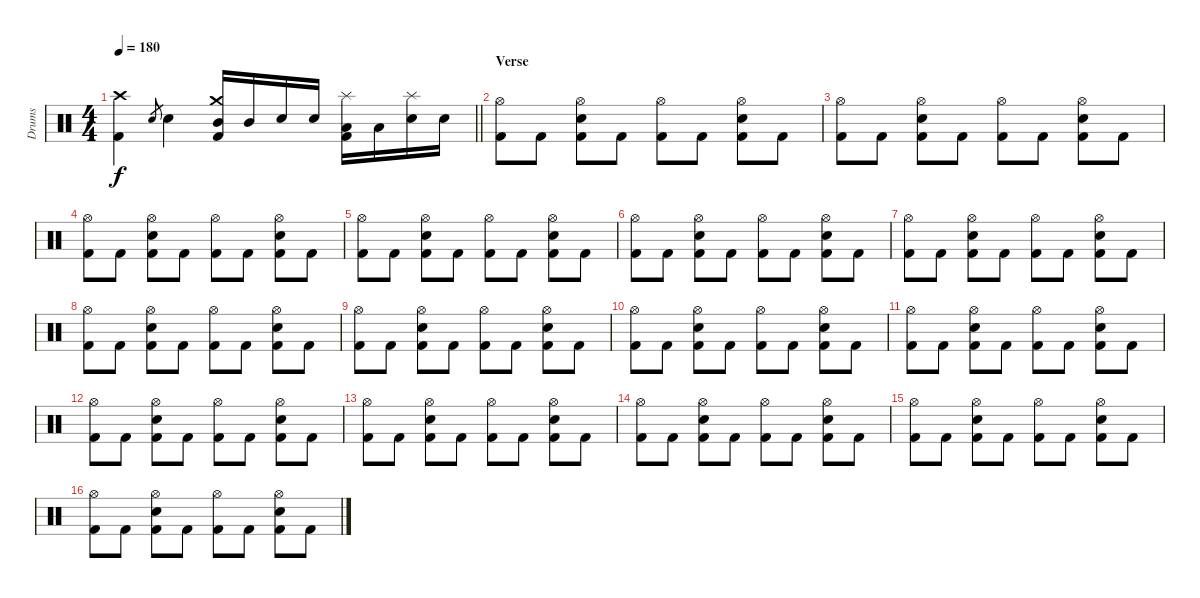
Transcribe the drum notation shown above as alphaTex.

\track ("Drums" "Drums") {instrument percussion}
\staff {score}
\articulation defaults
\ts (4 4)
\tempo 180
\clef neutral
\barLineRight lightlight
\ks c
("Crash high (hit)" "Kick (hit) 2").4{dy f} "Snare (hit) 2".8{gr} "Snare (hit) 2".4 ("Crash medium (hit)" "Mid Tom (hit)" "Kick (hit) 2").16 "Mid Tom (hit)".16 "Snare (hit) 2".16 "Snare (hit) 2".16 ("Splash (hit)" "Low Tom (hit)" "Kick (hit) 2").16 "Low Tom (hit)".16 ("Splash (hit)" "Snare (hit) 2").16 "Snare (hit) 2".16 |
\section ("" "Verse")
("Hi-Hat (open)" "Kick (hit) 2").8 "Kick (hit) 2".8 ("Hi-Hat (open)" "Snare (hit) 2" "Kick (hit) 2").8 "Kick (hit) 2".8 ("Hi-Hat (open)" "Kick (hit) 2").8 "Kick (hit) 2".8 ("Hi-Hat (open)" "Snare (hit) 2" "Kick (hit) 2").8 "Kick (hit) 2".8 |
("Hi-Hat (open)" "Kick (hit) 2").8 "Kick (hit) 2".8 ("Hi-Hat (open)" "Snare (hit) 2" "Kick (hit) 2").8 "Kick (hit) 2".8 ("Hi-Hat (open)" "Kick (hit) 2").8 "Kick (hit) 2".8 ("Hi-Hat (open)" "Snare (hit) 2" "Kick (hit) 2").8 "Kick (hit) 2".8 |
("Hi-Hat (open)" "Kick (hit) 2").8 "Kick (hit) 2".8 ("Hi-Hat (open)" "Snare (hit) 2" "Kick (hit) 2").8 "Kick (hit) 2".8 ("Hi-Hat (open)" "Kick (hit) 2").8 "Kick (hit) 2".8 ("Hi-Hat (open)" "Snare (hit) 2" "Kick (hit) 2").8 "Kick (hit) 2".8 |
("Hi-Hat (open)" "Kick (hit) 2").8 "Kick (hit) 2".8 ("Hi-Hat (open)" "Snare (hit) 2" "Kick (hit) 2").8 "Kick (hit) 2".8 ("Hi-Hat (open)" "Kick (hit) 2").8 "Kick (hit) 2".8 ("Hi-Hat (open)" "Snare (hit) 2" "Kick (hit) 2").8 "Kick (hit) 2".8 |
("Hi-Hat (open)" "Kick (hit) 2").8 "Kick (hit) 2".8 ("Hi-Hat (open)" "Snare (hit) 2" "Kick (hit) 2").8 "Kick (hit) 2".8 ("Hi-Hat (open)" "Kick (hit) 2").8 "Kick (hit) 2".8 ("Hi-Hat (open)" "Snare (hit) 2" "Kick (hit) 2").8 "Kick (hit) 2".8 |
("Hi-Hat (open)" "Kick (hit) 2").8 "Kick (hit) 2".8 ("Hi-Hat (open)" "Snare (hit) 2" "Kick (hit) 2").8 "Kick (hit) 2".8 ("Hi-Hat (open)" "Kick (hit) 2").8 "Kick (hit) 2".8 ("Hi-Hat (open)" "Snare (hit) 2" "Kick (hit) 2").8 "Kick (hit) 2".8 |
("Hi-Hat (open)" "Kick (hit) 2").8 "Kick (hit) 2".8 ("Hi-Hat (open)" "Snare (hit) 2" "Kick (hit) 2").8 "Kick (hit) 2".8 ("Hi-Hat (open)" "Kick (hit) 2").8 "Kick (hit) 2".8 ("Hi-Hat (open)" "Snare (hit) 2" "Kick (hit) 2").8 "Kick (hit) 2".8 |
("Hi-Hat (open)" "Kick (hit) 2").8 "Kick (hit) 2".8 ("Hi-Hat (open)" "Snare (hit) 2" "Kick (hit) 2").8 "Kick (hit) 2".8 ("Hi-Hat (open)" "Kick (hit) 2").8 "Kick (hit) 2".8 ("Hi-Hat (open)" "Snare (hit) 2" "Kick (hit) 2").8 "Kick (hit) 2".8 |
("Hi-Hat (open)" "Kick (hit) 2").8 "Kick (hit) 2".8 ("Hi-Hat (open)" "Snare (hit) 2" "Kick (hit) 2").8 "Kick (hit) 2".8 ("Hi-Hat (open)" "Kick (hit) 2").8 "Kick (hit) 2".8 ("Hi-Hat (open)" "Snare (hit) 2" "Kick (hit) 2").8 "Kick (hit) 2".8 |
("Hi-Hat (open)" "Kick (hit) 2").8 "Kick (hit) 2".8 ("Hi-Hat (open)" "Snare (hit) 2" "Kick (hit) 2").8 "Kick (hit) 2".8 ("Hi-Hat (open)" "Kick (hit) 2").8 "Kick (hit) 2".8 ("Hi-Hat (open)" "Snare (hit) 2" "Kick (hit) 2").8 "Kick (hit) 2".8 |
("Hi-Hat (open)" "Kick (hit) 2").8 "Kick (hit) 2".8 ("Hi-Hat (open)" "Snare (hit) 2" "Kick (hit) 2").8 "Kick (hit) 2".8 ("Hi-Hat (open)" "Kick (hit) 2").8 "Kick (hit) 2".8 ("Hi-Hat (open)" "Snare (hit) 2" "Kick (hit) 2").8 "Kick (hit) 2".8 |
("Hi-Hat (open)" "Kick (hit) 2").8 "Kick (hit) 2".8 ("Hi-Hat (open)" "Snare (hit) 2" "Kick (hit) 2").8 "Kick (hit) 2".8 ("Hi-Hat (open)" "Kick (hit) 2").8 "Kick (hit) 2".8 ("Hi-Hat (open)" "Snare (hit) 2" "Kick (hit) 2").8 "Kick (hit) 2".8 |
("Hi-Hat (open)" "Kick (hit) 2").8 "Kick (hit) 2".8 ("Hi-Hat (open)" "Snare (hit) 2" "Kick (hit) 2").8 "Kick (hit) 2".8 ("Hi-Hat (open)" "Kick (hit) 2").8 "Kick (hit) 2".8 ("Hi-Hat (open)" "Snare (hit) 2" "Kick (hit) 2").8 "Kick (hit) 2".8 |
("Hi-Hat (open)" "Kick (hit) 2").8 "Kick (hit) 2".8 ("Hi-Hat (open)" "Snare (hit) 2" "Kick (hit) 2").8 "Kick (hit) 2".8 ("Hi-Hat (open)" "Kick (hit) 2").8 "Kick (hit) 2".8 ("Hi-Hat (open)" "Snare (hit) 2" "Kick (hit) 2").8 "Kick (hit) 2".8 |
("Hi-Hat (open)" "Kick (hit) 2").8 "Kick (hit) 2".8 ("Hi-Hat (open)" "Snare (hit) 2" "Kick (hit) 2").8 "Kick (hit) 2".8 ("Hi-Hat (open)" "Kick (hit) 2").8 "Kick (hit) 2".8 ("Hi-Hat (open)" "Snare (hit) 2" "Kick (hit) 2").8 "Kick (hit) 2".8
